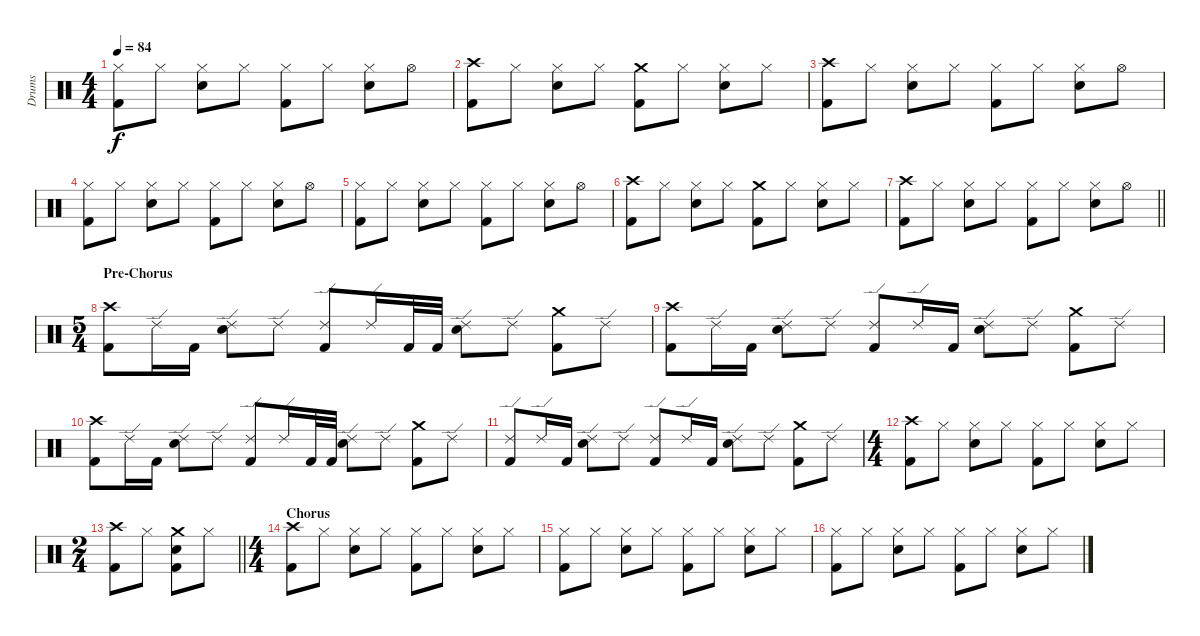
\track ("Drums" "Drums") {instrument percussion}
\staff {score}
\articulation defaults
\ts (4 4)
\tempo 84
\clef neutral
\ks c
("Hi-Hat (closed)" "Kick (hit) 2").8{dy f} "Hi-Hat (closed)".8 ("Hi-Hat (closed)" "Snare (hit) 2").8 "Hi-Hat (closed)".8 ("Hi-Hat (closed)" "Kick (hit) 2").8 "Hi-Hat (closed)".8 ("Hi-Hat (closed)" "Snare (hit) 2").8 "Hi-Hat (open)".8 |
("Crash high (hit)" "Kick (hit) 2").8 "Hi-Hat (closed)".8 ("Hi-Hat (closed)" "Snare (hit) 2").8 "Hi-Hat (closed)".8 ("Crash medium (hit)" "Kick (hit) 2").8 "Hi-Hat (closed)".8 ("Hi-Hat (closed)" "Snare (hit) 2").8 "Hi-Hat (closed)".8 |
("Crash high (hit)" "Kick (hit) 2").8 "Hi-Hat (closed)".8 ("Hi-Hat (closed)" "Snare (hit) 2").8 "Hi-Hat (closed)".8 ("Hi-Hat (closed)" "Kick (hit) 2").8 "Hi-Hat (closed)".8 ("Hi-Hat (closed)" "Snare (hit) 2").8 "Hi-Hat (open)".8 |
("Hi-Hat (closed)" "Kick (hit) 2").8 "Hi-Hat (closed)".8 ("Hi-Hat (closed)" "Snare (hit) 2").8 "Hi-Hat (closed)".8 ("Hi-Hat (closed)" "Kick (hit) 2").8 "Hi-Hat (closed)".8 ("Hi-Hat (closed)" "Snare (hit) 2").8 "Hi-Hat (open)".8 |
("Hi-Hat (closed)" "Kick (hit) 2").8 "Hi-Hat (closed)".8 ("Hi-Hat (closed)" "Snare (hit) 2").8 "Hi-Hat (closed)".8 ("Hi-Hat (closed)" "Kick (hit) 2").8 "Hi-Hat (closed)".8 ("Hi-Hat (closed)" "Snare (hit) 2").8 "Hi-Hat (open)".8 |
("Crash high (hit)" "Kick (hit) 2").8 "Hi-Hat (closed)".8 ("Hi-Hat (closed)" "Snare (hit) 2").8 "Hi-Hat (closed)".8 ("Crash medium (hit)" "Kick (hit) 2").8 "Hi-Hat (closed)".8 ("Hi-Hat (closed)" "Snare (hit) 2").8 "Hi-Hat (closed)".8 |
\barLineRight lightlight
("Crash high (hit)" "Kick (hit) 2").8 "Hi-Hat (closed)".8 ("Hi-Hat (closed)" "Snare (hit) 2").8 "Hi-Hat (closed)".8 ("Hi-Hat (closed)" "Kick (hit) 2").8 "Hi-Hat (closed)".8 ("Hi-Hat (closed)" "Snare (hit) 2").8 "Hi-Hat (open)".8 |
\ts (5 4)
\section ("" "Pre-Chorus")
("Crash high (hit)" "Kick (hit) 2").8 "Ride (edge) 2".16 "Kick (hit) 2".16 ("Ride (edge) 2" "Snare (hit) 2").8 "Ride (edge) 2".8 ("Ride (edge) 2" "Kick (hit) 2").8 "Ride (edge) 2".16 "Kick (hit) 2".32 "Kick (hit) 2".32 ("Ride (edge) 2" "Snare (hit) 2").8 "Ride (edge) 2".8 ("Crash medium (hit)" "Kick (hit) 2").8 "Ride (edge) 2".8 |
("Crash high (hit)" "Kick (hit) 2").8 "Ride (edge) 2".16 "Kick (hit) 2".16 ("Ride (edge) 2" "Snare (hit) 2").8 "Ride (edge) 2".8 ("Ride (edge) 2" "Kick (hit) 2").8 "Ride (edge) 2".16 "Kick (hit) 2".16 ("Ride (edge) 2" "Snare (hit) 2").8 "Ride (edge) 2".8 ("Crash medium (hit)" "Kick (hit) 2").8 "Ride (edge) 2".8 |
("Crash high (hit)" "Kick (hit) 2").8 "Ride (edge) 2".16 "Kick (hit) 2".16 ("Ride (edge) 2" "Snare (hit) 2").8 "Ride (edge) 2".8 ("Ride (edge) 2" "Kick (hit) 2").8 "Ride (edge) 2".16 "Kick (hit) 2".32 "Kick (hit) 2".32 ("Ride (edge) 2" "Snare (hit) 2").8 "Ride (edge) 2".8 ("Crash medium (hit)" "Kick (hit) 2").8 "Ride (edge) 2".8 |
("Ride (edge) 2" "Kick (hit) 2").8 "Ride (edge) 2".16 "Kick (hit) 2".16 ("Ride (edge) 2" "Snare (hit) 2").8 "Ride (edge) 2".8 ("Ride (edge) 2" "Kick (hit) 2").8 "Ride (edge) 2".16 "Kick (hit) 2".16 ("Ride (edge) 2" "Snare (hit) 2").8 "Ride (edge) 2".8 ("Crash medium (hit)" "Kick (hit) 2").8 "Ride (edge) 2".8 |
\ts (4 4)
("Crash high (hit)" "Kick (hit) 2").8 "Hi-Hat (closed)".8 ("Hi-Hat (closed)" "Snare (hit) 2").8 "Hi-Hat (closed)".8 ("Hi-Hat (closed)" "Kick (hit) 2").8 "Hi-Hat (closed)".8 ("Hi-Hat (closed)" "Snare (hit) 2").8 "Hi-Hat (closed)".8 |
\ts (2 4)
\barLineRight lightlight
("Crash high (hit)" "Kick (hit) 2").8 "Hi-Hat (closed)".8 ("Crash medium (hit)" "Snare (hit) 2" "Kick (hit) 2").8 "Hi-Hat (closed)".8 |
\ts (4 4)
\section ("" "Chorus")
("Crash high (hit)" "Kick (hit) 2").8 "Hi-Hat (closed)".8 ("Hi-Hat (closed)" "Snare (hit) 2").8 "Hi-Hat (closed)".8 ("Hi-Hat (closed)" "Kick (hit) 2").8 "Hi-Hat (closed)".8 ("Hi-Hat (closed)" "Snare (hit) 2").8 "Hi-Hat (closed)".8 |
("Hi-Hat (closed)" "Kick (hit) 2").8 "Hi-Hat (closed)".8 ("Hi-Hat (closed)" "Snare (hit) 2").8 "Hi-Hat (closed)".8 ("Hi-Hat (closed)" "Kick (hit) 2").8 "Hi-Hat (closed)".8 ("Hi-Hat (closed)" "Snare (hit) 2").8 "Hi-Hat (closed)".8 |
("Hi-Hat (closed)" "Kick (hit) 2").8 "Hi-Hat (closed)".8 ("Hi-Hat (closed)" "Snare (hit) 2").8 "Hi-Hat (closed)".8 ("Hi-Hat (closed)" "Kick (hit) 2").8 "Hi-Hat (closed)".8 ("Hi-Hat (closed)" "Snare (hit) 2").8 "Hi-Hat (closed)".8
